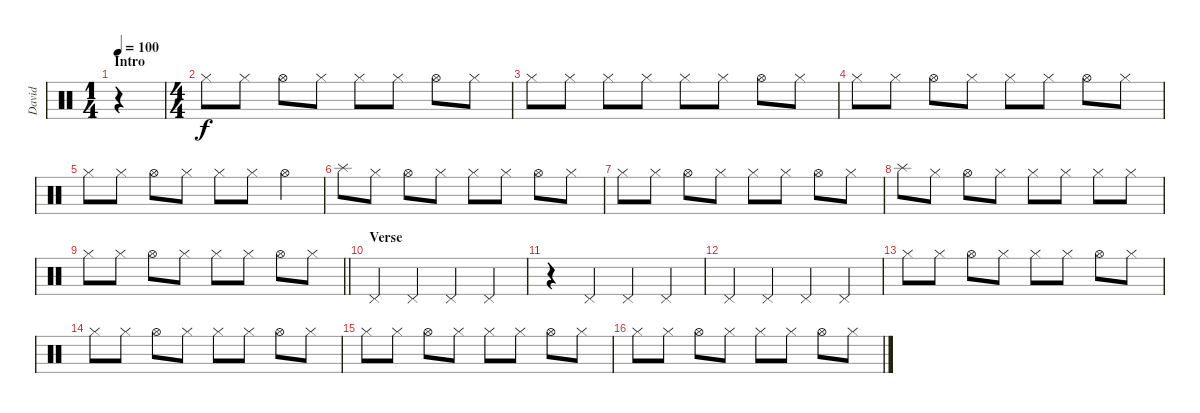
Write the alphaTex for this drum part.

\track ("David" "David") {instrument percussion}
\staff {score}
\articulation defaults
\ts (1 4)
\section ("" "Intro")
\tempo 100
\clef neutral
\ks c
r.4{dy f} |
\ts (4 4)
"Hi-Hat (closed)".8 "Hi-Hat (closed)".8 "Hi-Hat (open)".8 "Hi-Hat (closed)".8 "Hi-Hat (closed)".8 "Hi-Hat (closed)".8 "Hi-Hat (open)".8 "Hi-Hat (closed)".8 |
"Hi-Hat (closed)".8 "Hi-Hat (closed)".8 "Hi-Hat (closed)".8 "Hi-Hat (closed)".8 "Hi-Hat (closed)".8 "Hi-Hat (closed)".8 "Hi-Hat (open)".8 "Hi-Hat (closed)".8 |
"Hi-Hat (closed)".8 "Hi-Hat (closed)".8 "Hi-Hat (open)".8 "Hi-Hat (closed)".8 "Hi-Hat (closed)".8 "Hi-Hat (closed)".8 "Hi-Hat (open)".8 "Hi-Hat (closed)".8 |
"Hi-Hat (closed)".8 "Hi-Hat (closed)".8 "Hi-Hat (open)".8 "Hi-Hat (closed)".8 "Hi-Hat (closed)".8 "Hi-Hat (closed)".8 "Hi-Hat (open)".4 |
"Splash (hit)".8 "Hi-Hat (closed)".8 "Hi-Hat (open)".8 "Hi-Hat (closed)".8 "Hi-Hat (closed)".8 "Hi-Hat (closed)".8 "Hi-Hat (open)".8 "Hi-Hat (closed)".8 |
"Hi-Hat (closed)".8 "Hi-Hat (closed)".8 "Hi-Hat (open)".8 "Hi-Hat (closed)".8 "Hi-Hat (closed)".8 "Hi-Hat (closed)".8 "Hi-Hat (open)".8 "Hi-Hat (closed)".8 |
"Splash (hit)".8 "Hi-Hat (closed)".8 "Hi-Hat (open)".8 "Hi-Hat (closed)".8 "Hi-Hat (closed)".8 "Hi-Hat (closed)".8 "Hi-Hat (closed)".8 "Hi-Hat (closed)".8 |
\barLineRight lightlight "Hi-Hat (closed)".8 "Hi-Hat (closed)".8 "Hi-Hat (open)".8 "Hi-Hat (closed)".8 "Hi-Hat (closed)".8 "Hi-Hat (closed)".8 "Hi-Hat (open)".8 "Hi-Hat (closed)".8
|
\section ("" "Verse")
"Pedal Hi-Hat (hit)".4 "Pedal Hi-Hat (hit)".4 "Pedal Hi-Hat (hit)".4 "Pedal Hi-Hat (hit)".4 |
r.4 "Pedal Hi-Hat (hit)".4 "Pedal Hi-Hat (hit)".4 "Pedal Hi-Hat (hit)".4 |
"Pedal Hi-Hat (hit)".4 "Pedal Hi-Hat (hit)".4 "Pedal Hi-Hat (hit)".4 "Pedal Hi-Hat (hit)".4 |
"Hi-Hat (closed)".8 "Hi-Hat (closed)".8 "Hi-Hat (open)".8 "Hi-Hat (closed)".8 "Hi-Hat (closed)".8 "Hi-Hat (closed)".8 "Hi-Hat (open)".8 "Hi-Hat (closed)".8 |
"Hi-Hat (closed)".8 "Hi-Hat (closed)".8 "Hi-Hat (open)".8 "Hi-Hat (closed)".8 "Hi-Hat (closed)".8 "Hi-Hat (closed)".8 "Hi-Hat (open)".8 "Hi-Hat (closed)".8 |
"Hi-Hat (closed)".8 "Hi-Hat (closed)".8 "Hi-Hat (open)".8 "Hi-Hat (closed)".8 "Hi-Hat (closed)".8 "Hi-Hat (closed)".8 "Hi-Hat (open)".8 "Hi-Hat (closed)".8 |
"Hi-Hat (closed)".8 "Hi-Hat (closed)".8 "Hi-Hat (open)".8 "Hi-Hat (closed)".8 "Hi-Hat (closed)".8 "Hi-Hat (closed)".8 "Hi-Hat (open)".8 "Hi-Hat (closed)".8
